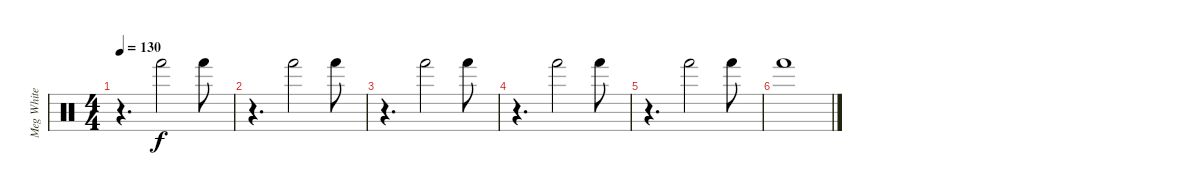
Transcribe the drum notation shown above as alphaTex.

\track ("Meg White" "Meg White") {instrument percussion}
\staff {score}
\articulation defaults
\ts (4 4)
\tempo 130
\clef neutral
\ks c
r.4{d dy f} "Hand (hit)".2 "Hand (hit)".8 |
r.4{d} "Hand (hit)".2 "Hand (hit)".8 |
r.4{d} "Hand (hit)".2 "Hand (hit)".8 |
r.4{d} "Hand (hit)".2 "Hand (hit)".8 |
r.4{d} "Hand (hit)".2 "Hand (hit)".8 |
"Hand (hit)".1
